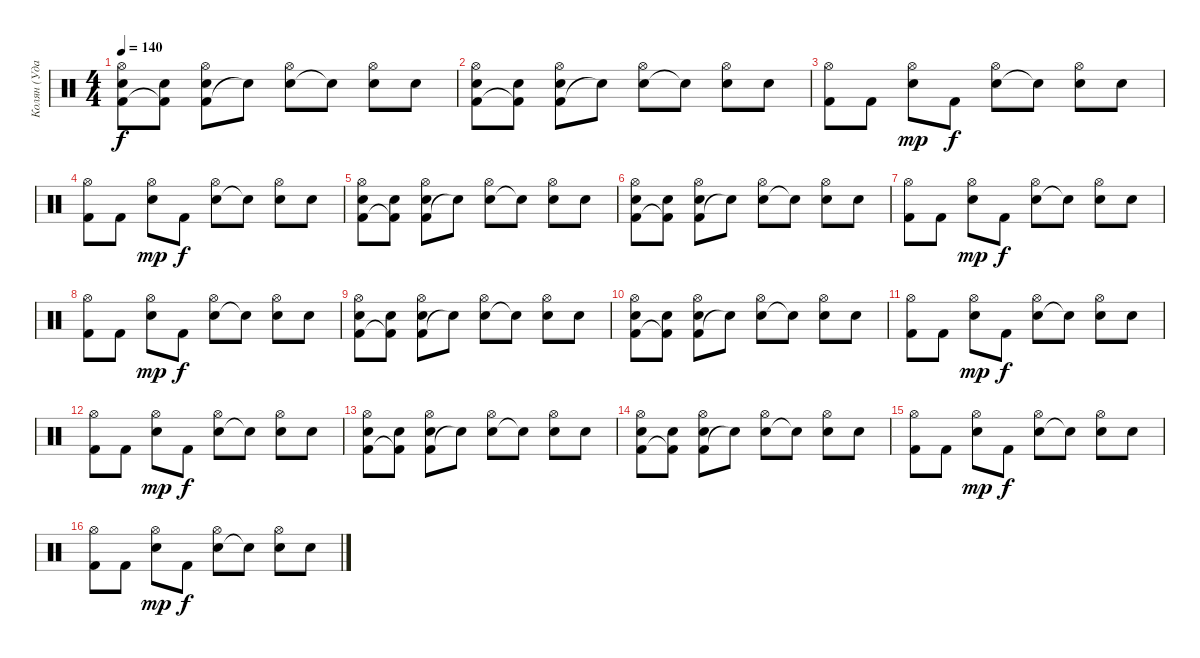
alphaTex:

\track ("Колян (Ударные)" "Колян (Уда") {instrument percussion}
\staff {score}
\articulation defaults
\ts (4 4)
\tempo 140
\clef neutral
\ks c
("Kick (hit) 2" "Snare (hit) 2" "Hi-Hat (open)").8{dy f} ("Kick (hit) 2"{t} "Snare (hit) 2").8 ("Kick (hit) 2" "Snare (hit) 2" "Hi-Hat (open)").8 "Snare (hit)"{t}.8 ("Snare (hit) 2" "Hi-Hat (open)").8 "Snare (hit)"{t}.8 ("Snare (hit) 2" "Hi-Hat (open)").8 "Snare (hit) 2".8 |
("Kick (hit) 2" "Snare (hit) 2" "Hi-Hat (open)").8 ("Kick (hit) 2"{t} "Snare (hit) 2").8 ("Kick (hit) 2" "Snare (hit) 2" "Hi-Hat (open)").8 "Snare (hit)"{t}.8 ("Snare (hit) 2" "Hi-Hat (open)").8 "Snare (hit)"{t}.8 ("Snare (hit) 2" "Hi-Hat (open)").8 "Snare (hit) 2".8 |
("Kick (hit) 2" "Hi-Hat (open)").8 "Kick (hit) 2".8 ("Snare (hit) 2" "Hi-Hat (open)").8{dy mp} "Kick (hit) 2".8{dy f} ("Snare (hit) 2" "Hi-Hat (open)").8 "Snare (hit)"{t}.8 ("Snare (hit) 2" "Hi-Hat (open)").8 "Snare (hit) 2".8 |
("Kick (hit) 2" "Hi-Hat (open)").8 "Kick (hit) 2".8 ("Snare (hit) 2" "Hi-Hat (open)").8{dy mp} "Kick (hit) 2".8{dy f} ("Snare (hit) 2" "Hi-Hat (open)").8 "Snare (hit)"{t}.8 ("Snare (hit) 2" "Hi-Hat (open)").8 "Snare (hit) 2".8 |
("Kick (hit) 2" "Snare (hit) 2" "Hi-Hat (open)").8 ("Kick (hit) 2"{t} "Snare (hit) 2").8 ("Kick (hit) 2" "Snare (hit) 2" "Hi-Hat (open)").8 "Snare (hit)"{t}.8 ("Snare (hit) 2" "Hi-Hat (open)").8 "Snare (hit)"{t}.8 ("Snare (hit) 2" "Hi-Hat (open)").8 "Snare (hit) 2".8 |
("Kick (hit) 2" "Snare (hit) 2" "Hi-Hat (open)").8 ("Kick (hit) 2"{t} "Snare (hit) 2").8 ("Kick (hit) 2" "Snare (hit) 2" "Hi-Hat (open)").8 "Snare (hit)"{t}.8 ("Snare (hit) 2" "Hi-Hat (open)").8 "Snare (hit)"{t}.8 ("Snare (hit) 2" "Hi-Hat (open)").8 "Snare (hit) 2".8 |
("Kick (hit) 2" "Hi-Hat (open)").8 "Kick (hit) 2".8 ("Snare (hit) 2" "Hi-Hat (open)").8{dy mp} "Kick (hit) 2".8{dy f} ("Snare (hit) 2" "Hi-Hat (open)").8 "Snare (hit)"{t}.8 ("Snare (hit) 2" "Hi-Hat (open)").8 "Snare (hit) 2".8 |
("Kick (hit) 2" "Hi-Hat (open)").8 "Kick (hit) 2".8 ("Snare (hit) 2" "Hi-Hat (open)").8{dy mp} "Kick (hit) 2".8{dy f} ("Snare (hit) 2" "Hi-Hat (open)").8 "Snare (hit)"{t}.8 ("Snare (hit) 2" "Hi-Hat (open)").8 "Snare (hit) 2".8 |
("Kick (hit) 2" "Snare (hit) 2" "Hi-Hat (open)").8 ("Kick (hit) 2"{t} "Snare (hit) 2").8 ("Kick (hit) 2" "Snare (hit) 2" "Hi-Hat (open)").8 "Snare (hit)"{t}.8 ("Snare (hit) 2" "Hi-Hat (open)").8 "Snare (hit)"{t}.8 ("Snare (hit) 2" "Hi-Hat (open)").8 "Snare (hit) 2".8 |
("Kick (hit) 2" "Snare (hit) 2" "Hi-Hat (open)").8 ("Kick (hit) 2"{t} "Snare (hit) 2").8 ("Kick (hit) 2" "Snare (hit) 2" "Hi-Hat (open)").8 "Snare (hit)"{t}.8 ("Snare (hit) 2" "Hi-Hat (open)").8 "Snare (hit)"{t}.8 ("Snare (hit) 2" "Hi-Hat (open)").8 "Snare (hit) 2".8 |
("Kick (hit) 2" "Hi-Hat (open)").8 "Kick (hit) 2".8 ("Snare (hit) 2" "Hi-Hat (open)").8{dy mp} "Kick (hit) 2".8{dy f} ("Snare (hit) 2" "Hi-Hat (open)").8 "Snare (hit)"{t}.8 ("Snare (hit) 2" "Hi-Hat (open)").8 "Snare (hit) 2".8 |
("Kick (hit) 2" "Hi-Hat (open)").8 "Kick (hit) 2".8 ("Snare (hit) 2" "Hi-Hat (open)").8{dy mp} "Kick (hit) 2".8{dy f} ("Snare (hit) 2" "Hi-Hat (open)").8 "Snare (hit)"{t}.8 ("Snare (hit) 2" "Hi-Hat (open)").8 "Snare (hit) 2".8 |
("Kick (hit) 2" "Snare (hit) 2" "Hi-Hat (open)").8 ("Kick (hit) 2"{t} "Snare (hit) 2").8 ("Kick (hit) 2" "Snare (hit) 2" "Hi-Hat (open)").8 "Snare (hit)"{t}.8 ("Snare (hit) 2" "Hi-Hat (open)").8 "Snare (hit)"{t}.8 ("Snare (hit) 2" "Hi-Hat (open)").8 "Snare (hit) 2".8 |
("Kick (hit) 2" "Snare (hit) 2" "Hi-Hat (open)").8 ("Kick (hit) 2"{t} "Snare (hit) 2").8 ("Kick (hit) 2" "Snare (hit) 2" "Hi-Hat (open)").8 "Snare (hit)"{t}.8 ("Snare (hit) 2" "Hi-Hat (open)").8 "Snare (hit)"{t}.8 ("Snare (hit) 2" "Hi-Hat (open)").8 "Snare (hit) 2".8 |
("Kick (hit) 2" "Hi-Hat (open)").8 "Kick (hit) 2".8 ("Snare (hit) 2" "Hi-Hat (open)").8{dy mp} "Kick (hit) 2".8{dy f} ("Snare (hit) 2" "Hi-Hat (open)").8 "Snare (hit)"{t}.8 ("Snare (hit) 2" "Hi-Hat (open)").8 "Snare (hit) 2".8 |
("Kick (hit) 2" "Hi-Hat (open)").8 "Kick (hit) 2".8 ("Snare (hit) 2" "Hi-Hat (open)").8{dy mp} "Kick (hit) 2".8{dy f} ("Snare (hit) 2" "Hi-Hat (open)").8 "Snare (hit)"{t}.8 ("Snare (hit) 2" "Hi-Hat (open)").8 "Snare (hit) 2".8
